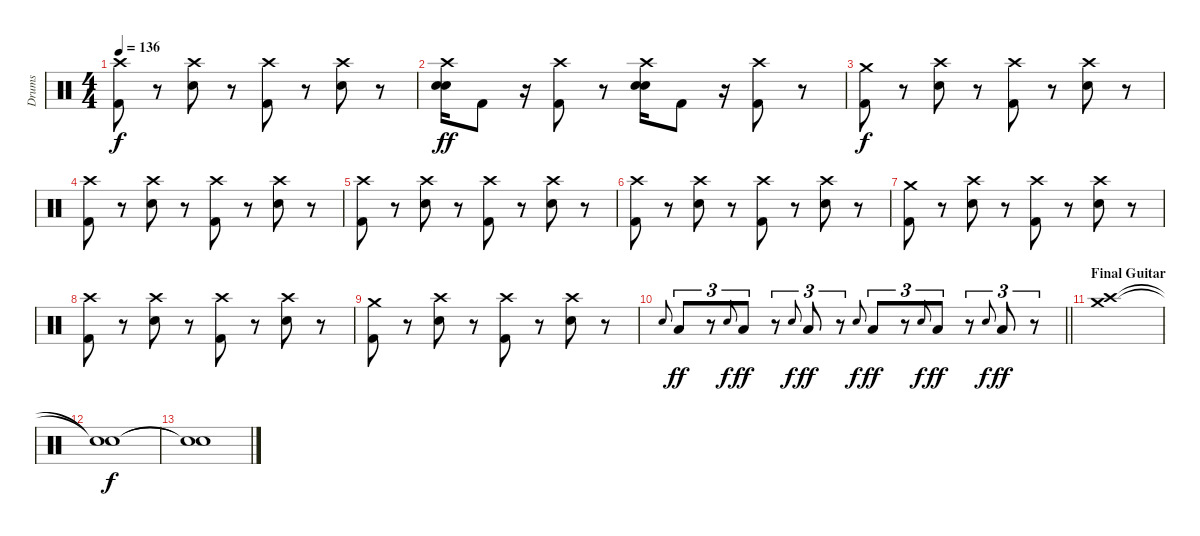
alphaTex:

\track ("Drums" "Drums") {instrument percussion}
\staff {score}
\articulation defaults
\ts (4 4)
\tempo 136
\clef neutral
\ks c
("Crash high (hit)" "Kick (hit) 2").8{dy f} r.8 ("Crash high (hit)" "Electric Snare (hit)").8 r.8 ("Crash high (hit)" "Kick (hit) 2").8 r.8 ("Crash high (hit)" "Electric Snare (hit)").8 r.8 |
("Crash high (hit)" "Hand Clap (hit)" "Electric Snare (hit)").16{dy ff} "Kick (hit) 2".8 r.16 ("Crash high (hit)" "Kick (hit) 2").8 r.8 ("Crash high (hit)" "Hand Clap (hit)" "Electric Snare (hit)").16 "Kick (hit) 2".8 r.16 ("Crash high (hit)" "Kick (hit) 2").8 r.8 |
("Crash medium (hit)" "Kick (hit) 2").8{dy f} r.8 ("Crash high (hit)" "Electric Snare (hit)").8 r.8 ("Crash high (hit)" "Kick (hit) 2").8 r.8 ("Crash high (hit)" "Electric Snare (hit)").8 r.8 |
("Crash high (hit)" "Kick (hit) 2").8 r.8 ("Crash high (hit)" "Electric Snare (hit)").8 r.8 ("Crash high (hit)" "Kick (hit) 2").8 r.8 ("Crash high (hit)" "Electric Snare (hit)").8 r.8 |
("Crash high (hit)" "Kick (hit) 2").8 r.8 ("Crash high (hit)" "Electric Snare (hit)").8 r.8 ("Crash high (hit)" "Kick (hit) 2").8 r.8 ("Crash high (hit)" "Electric Snare (hit)").8 r.8 |
("Crash high (hit)" "Kick (hit) 2").8 r.8 ("Crash high (hit)" "Electric Snare (hit)").8 r.8 ("Crash high (hit)" "Kick (hit) 2").8 r.8 ("Crash high (hit)" "Electric Snare (hit)").8 r.8 |
("Crash medium (hit)" "Kick (hit) 2").8 r.8 ("Crash high (hit)" "Electric Snare (hit)").8 r.8 ("Crash high (hit)" "Kick (hit) 2").8 r.8 ("Crash high (hit)" "Electric Snare (hit)").8 r.8 |
("Crash high (hit)" "Kick (hit) 2").8 r.8 ("Crash high (hit)" "Electric Snare (hit)").8 r.8 ("Crash high (hit)" "Kick (hit) 2").8 r.8 ("Crash high (hit)" "Electric Snare (hit)").8 r.8 |
("Crash medium (hit)" "Kick (hit) 2").8 r.8 ("Crash high (hit)" "Electric Snare (hit)").8 r.8 ("Crash high (hit)" "Kick (hit) 2").8 r.8 ("Crash high (hit)" "Electric Snare (hit)").8 r.8 |
\barLineRight lightlight "Electric Snare (hit)".8{gr onbeat} "Low Floor Tom (hit)".8{tu (3 2) dy ff}
r.8{tu (3 2)} "Electric Snare (hit)".8{gr onbeat dy f} "Low Floor Tom (hit)".8{tu (3 2) dy ff} r.8{tu (3 2)} "Electric Snare (hit)".8{gr onbeat dy f} "Low Floor Tom (hit)".8{tu (3 2) dy ff} r.8{tu (3 2)} "Electric Snare (hit)".8{gr onbeat dy f} "Low Floor Tom (hit)".8{tu (3 2) dy ff} r.8{tu (3 2)} "Electric Snare (hit)".8{gr onbeat dy f} "Low Floor Tom (hit)".8{tu (3 2) dy ff} r.8{tu (3 2)} "Electric Snare (hit)".8{gr onbeat dy f} "Low Floor Tom (hit)".8{tu (3 2) dy ff} r.8{tu (3 2)} |
\section ("" "Final Guitar")
("Crash medium (hit)" "Crash high (hit)").1 |
("Snare (hit)"{t} "Snare (hit)"{t}).1{dy f} |
("Snare (hit)"{t} "Snare (hit)"{t}).1
